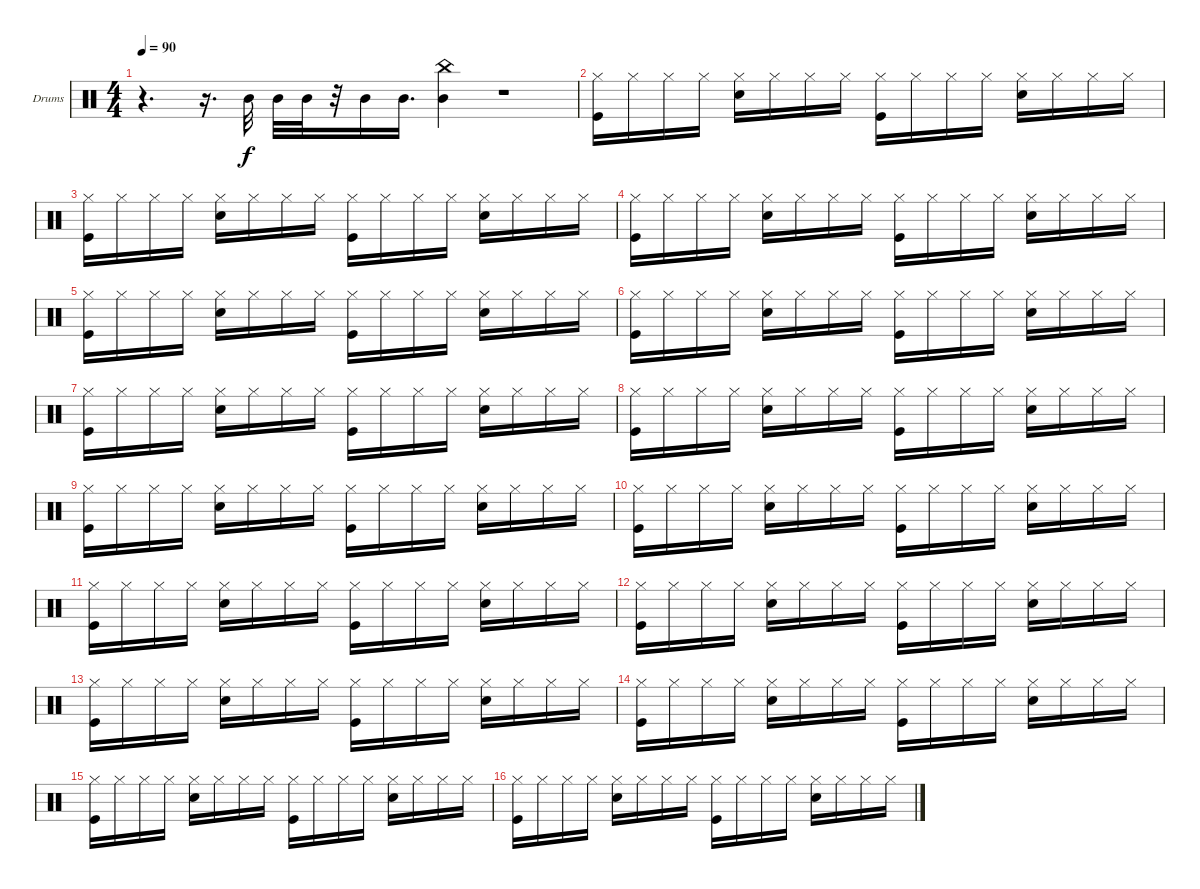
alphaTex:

\defaultSystemsLayout 4
\bracketExtendMode groupsimilarinstruments
\firstSystemTrackNameOrientation horizontal
\otherSystemsTrackNameOrientation horizontal
\track ("Drumkit" "Drums") {instrument percussion}
\staff {score}
\articulation defaults
\ts (4 4)
\tempo 90
\clef neutral
\ks c
r.4{d dy f} r.16{d} "Mid Tom (hit)".32 "Mid Tom (hit)".32 "Mid Tom (hit)".32 r.32 "Mid Tom (hit)".16 "Mid Tom (hit)".16{d} ("China (hit)" "Mid Tom (hit)").4 r.1 |
("Hi-Hat (closed)" "Kick (hit)").16 "Hi-Hat (closed)".16 "Hi-Hat (closed)".16 "Hi-Hat (closed)".16 ("Hi-Hat (closed)" "Snare (hit) 2").16 "Hi-Hat (closed)".16 "Hi-Hat (closed)".16 "Hi-Hat (closed)".16 ("Hi-Hat (closed)" "Kick (hit)").16 "Hi-Hat (closed)".16 "Hi-Hat (closed)".16 "Hi-Hat (closed)".16 ("Hi-Hat (closed)" "Snare (hit) 2").16 "Hi-Hat (closed)".16 "Hi-Hat (closed)".16 "Hi-Hat (closed)".16 |
("Hi-Hat (closed)" "Kick (hit)").16 "Hi-Hat (closed)".16 "Hi-Hat (closed)".16 "Hi-Hat (closed)".16 ("Hi-Hat (closed)" "Snare (hit) 2").16 "Hi-Hat (closed)".16 "Hi-Hat (closed)".16 "Hi-Hat (closed)".16 ("Hi-Hat (closed)" "Kick (hit)").16 "Hi-Hat (closed)".16 "Hi-Hat (closed)".16 "Hi-Hat (closed)".16 ("Hi-Hat (closed)" "Snare (hit) 2").16 "Hi-Hat (closed)".16 "Hi-Hat (closed)".16 "Hi-Hat (closed)".16 |
("Hi-Hat (closed)" "Kick (hit)").16 "Hi-Hat (closed)".16 "Hi-Hat (closed)".16 "Hi-Hat (closed)".16 ("Hi-Hat (closed)" "Snare (hit) 2").16 "Hi-Hat (closed)".16 "Hi-Hat (closed)".16 "Hi-Hat (closed)".16 ("Hi-Hat (closed)" "Kick (hit)").16 "Hi-Hat (closed)".16 "Hi-Hat (closed)".16 "Hi-Hat (closed)".16 ("Hi-Hat (closed)" "Snare (hit) 2").16 "Hi-Hat (closed)".16 "Hi-Hat (closed)".16 "Hi-Hat (closed)".16 |
("Hi-Hat (closed)" "Kick (hit)").16 "Hi-Hat (closed)".16 "Hi-Hat (closed)".16 "Hi-Hat (closed)".16 ("Hi-Hat (closed)" "Snare (hit) 2").16 "Hi-Hat (closed)".16 "Hi-Hat (closed)".16 "Hi-Hat (closed)".16 ("Hi-Hat (closed)" "Kick (hit)").16 "Hi-Hat (closed)".16 "Hi-Hat (closed)".16 "Hi-Hat (closed)".16 ("Hi-Hat (closed)" "Snare (hit) 2").16 "Hi-Hat (closed)".16 "Hi-Hat (closed)".16 "Hi-Hat (closed)".16 |
("Hi-Hat (closed)" "Kick (hit)").16 "Hi-Hat (closed)".16 "Hi-Hat (closed)".16 "Hi-Hat (closed)".16 ("Hi-Hat (closed)" "Snare (hit) 2").16 "Hi-Hat (closed)".16 "Hi-Hat (closed)".16 "Hi-Hat (closed)".16 ("Hi-Hat (closed)" "Kick (hit)").16 "Hi-Hat (closed)".16 "Hi-Hat (closed)".16 "Hi-Hat (closed)".16 ("Hi-Hat (closed)" "Snare (hit) 2").16 "Hi-Hat (closed)".16 "Hi-Hat (closed)".16 "Hi-Hat (closed)".16 |
("Hi-Hat (closed)" "Kick (hit)").16 "Hi-Hat (closed)".16 "Hi-Hat (closed)".16 "Hi-Hat (closed)".16 ("Hi-Hat (closed)" "Snare (hit) 2").16 "Hi-Hat (closed)".16 "Hi-Hat (closed)".16 "Hi-Hat (closed)".16 ("Hi-Hat (closed)" "Kick (hit)").16 "Hi-Hat (closed)".16 "Hi-Hat (closed)".16 "Hi-Hat (closed)".16 ("Hi-Hat (closed)" "Snare (hit) 2").16 "Hi-Hat (closed)".16 "Hi-Hat (closed)".16 "Hi-Hat (closed)".16 |
("Hi-Hat (closed)" "Kick (hit)").16 "Hi-Hat (closed)".16 "Hi-Hat (closed)".16 "Hi-Hat (closed)".16 ("Hi-Hat (closed)" "Snare (hit) 2").16 "Hi-Hat (closed)".16 "Hi-Hat (closed)".16 "Hi-Hat (closed)".16 ("Hi-Hat (closed)" "Kick (hit)").16 "Hi-Hat (closed)".16 "Hi-Hat (closed)".16 "Hi-Hat (closed)".16 ("Hi-Hat (closed)" "Snare (hit) 2").16 "Hi-Hat (closed)".16 "Hi-Hat (closed)".16 "Hi-Hat (closed)".16 |
("Hi-Hat (closed)" "Kick (hit)").16 "Hi-Hat (closed)".16 "Hi-Hat (closed)".16 "Hi-Hat (closed)".16 ("Hi-Hat (closed)" "Snare (hit) 2").16 "Hi-Hat (closed)".16 "Hi-Hat (closed)".16 "Hi-Hat (closed)".16 ("Hi-Hat (closed)" "Kick (hit)").16 "Hi-Hat (closed)".16 "Hi-Hat (closed)".16 "Hi-Hat (closed)".16 ("Hi-Hat (closed)" "Snare (hit) 2").16 "Hi-Hat (closed)".16 "Hi-Hat (closed)".16 "Hi-Hat (closed)".16 |
("Hi-Hat (closed)" "Kick (hit)").16 "Hi-Hat (closed)".16 "Hi-Hat (closed)".16 "Hi-Hat (closed)".16 ("Hi-Hat (closed)" "Snare (hit) 2").16 "Hi-Hat (closed)".16 "Hi-Hat (closed)".16 "Hi-Hat (closed)".16 ("Hi-Hat (closed)" "Kick (hit)").16 "Hi-Hat (closed)".16 "Hi-Hat (closed)".16 "Hi-Hat (closed)".16 ("Hi-Hat (closed)" "Snare (hit) 2").16 "Hi-Hat (closed)".16 "Hi-Hat (closed)".16 "Hi-Hat (closed)".16 |
("Hi-Hat (closed)" "Kick (hit)").16 "Hi-Hat (closed)".16 "Hi-Hat (closed)".16 "Hi-Hat (closed)".16 ("Hi-Hat (closed)" "Snare (hit) 2").16 "Hi-Hat (closed)".16 "Hi-Hat (closed)".16 "Hi-Hat (closed)".16 ("Hi-Hat (closed)" "Kick (hit)").16 "Hi-Hat (closed)".16 "Hi-Hat (closed)".16 "Hi-Hat (closed)".16 ("Hi-Hat (closed)" "Snare (hit) 2").16 "Hi-Hat (closed)".16 "Hi-Hat (closed)".16 "Hi-Hat (closed)".16 |
("Hi-Hat (closed)" "Kick (hit)").16 "Hi-Hat (closed)".16 "Hi-Hat (closed)".16 "Hi-Hat (closed)".16 ("Hi-Hat (closed)" "Snare (hit) 2").16 "Hi-Hat (closed)".16 "Hi-Hat (closed)".16 "Hi-Hat (closed)".16 ("Hi-Hat (closed)" "Kick (hit)").16 "Hi-Hat (closed)".16 "Hi-Hat (closed)".16 "Hi-Hat (closed)".16 ("Hi-Hat (closed)" "Snare (hit) 2").16 "Hi-Hat (closed)".16 "Hi-Hat (closed)".16 "Hi-Hat (closed)".16 |
("Hi-Hat (closed)" "Kick (hit)").16 "Hi-Hat (closed)".16 "Hi-Hat (closed)".16 "Hi-Hat (closed)".16 ("Hi-Hat (closed)" "Snare (hit) 2").16 "Hi-Hat (closed)".16 "Hi-Hat (closed)".16 "Hi-Hat (closed)".16 ("Hi-Hat (closed)" "Kick (hit)").16 "Hi-Hat (closed)".16 "Hi-Hat (closed)".16 "Hi-Hat (closed)".16 ("Hi-Hat (closed)" "Snare (hit) 2").16 "Hi-Hat (closed)".16 "Hi-Hat (closed)".16 "Hi-Hat (closed)".16 |
("Hi-Hat (closed)" "Kick (hit)").16 "Hi-Hat (closed)".16 "Hi-Hat (closed)".16 "Hi-Hat (closed)".16 ("Hi-Hat (closed)" "Snare (hit) 2").16 "Hi-Hat (closed)".16 "Hi-Hat (closed)".16 "Hi-Hat (closed)".16 ("Hi-Hat (closed)" "Kick (hit)").16 "Hi-Hat (closed)".16 "Hi-Hat (closed)".16 "Hi-Hat (closed)".16 ("Hi-Hat (closed)" "Snare (hit) 2").16 "Hi-Hat (closed)".16 "Hi-Hat (closed)".16 "Hi-Hat (closed)".16 |
("Hi-Hat (closed)" "Kick (hit)").16 "Hi-Hat (closed)".16 "Hi-Hat (closed)".16 "Hi-Hat (closed)".16 ("Hi-Hat (closed)" "Snare (hit) 2").16 "Hi-Hat (closed)".16 "Hi-Hat (closed)".16 "Hi-Hat (closed)".16 ("Hi-Hat (closed)" "Kick (hit)").16 "Hi-Hat (closed)".16 "Hi-Hat (closed)".16 "Hi-Hat (closed)".16 ("Hi-Hat (closed)" "Snare (hit) 2").16 "Hi-Hat (closed)".16 "Hi-Hat (closed)".16 "Hi-Hat (closed)".16 |
("Hi-Hat (closed)" "Kick (hit)").16 "Hi-Hat (closed)".16 "Hi-Hat (closed)".16 "Hi-Hat (closed)".16 ("Hi-Hat (closed)" "Snare (hit) 2").16 "Hi-Hat (closed)".16 "Hi-Hat (closed)".16 "Hi-Hat (closed)".16 ("Hi-Hat (closed)" "Kick (hit)").16 "Hi-Hat (closed)".16 "Hi-Hat (closed)".16 "Hi-Hat (closed)".16 ("Hi-Hat (closed)" "Snare (hit) 2").16 "Hi-Hat (closed)".16 "Hi-Hat (closed)".16 "Hi-Hat (closed)".16
